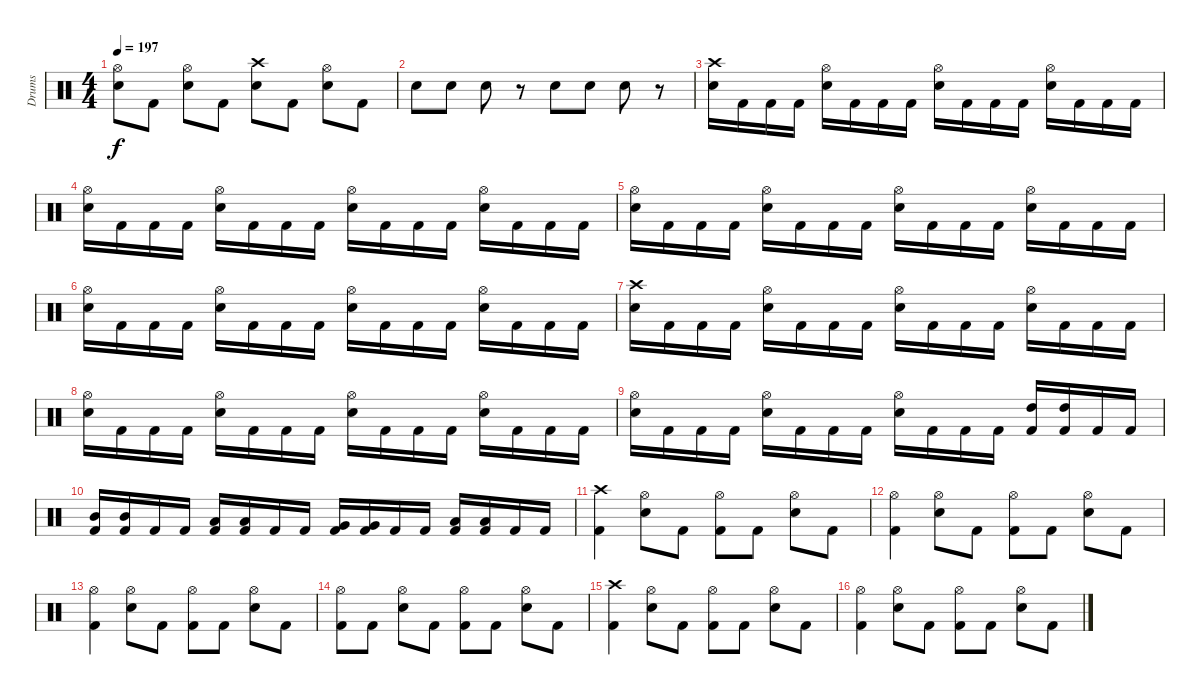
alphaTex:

\track ("Drums" "Drums") {instrument percussion}
\staff {score}
\articulation defaults
\ts (4 4)
\tempo 197
\clef neutral
\ks c
("Hi-Hat (open)" "Electric Snare (hit)").8{dy f} "Kick (hit) 2".8 ("Hi-Hat (open)" "Electric Snare (hit)").8 "Kick (hit) 2".8 ("Crash high (hit)" "Electric Snare (hit)").8 "Kick (hit) 2".8 ("Hi-Hat (open)" "Electric Snare (hit)").8 "Kick (hit) 2".8 |
"Electric Snare (hit)".8 "Electric Snare (hit)".8 "Electric Snare (hit)".8 r.8 "Electric Snare (hit)".8 "Electric Snare (hit)".8 "Electric Snare (hit)".8 r.8 |
("Crash high (hit)" "Electric Snare (hit)").16 "Kick (hit) 2".16 "Kick (hit) 2".16 "Kick (hit) 2".16 ("Hi-Hat (open)" "Electric Snare (hit)").16 "Kick (hit) 2".16 "Kick (hit) 2".16 "Kick (hit) 2".16 ("Hi-Hat (open)" "Electric Snare (hit)").16 "Kick (hit) 2".16 "Kick (hit) 2".16 "Kick (hit) 2".16 ("Hi-Hat (open)" "Electric Snare (hit)").16 "Kick (hit) 2".16 "Kick (hit) 2".16 "Kick (hit) 2".16 |
("Hi-Hat (open)" "Electric Snare (hit)").16 "Kick (hit) 2".16 "Kick (hit) 2".16 "Kick (hit) 2".16 ("Hi-Hat (open)" "Electric Snare (hit)").16 "Kick (hit) 2".16 "Kick (hit) 2".16 "Kick (hit) 2".16 ("Hi-Hat (open)" "Electric Snare (hit)").16 "Kick (hit) 2".16 "Kick (hit) 2".16 "Kick (hit) 2".16 ("Hi-Hat (open)" "Electric Snare (hit)").16 "Kick (hit) 2".16 "Kick (hit) 2".16 "Kick (hit) 2".16 |
("Hi-Hat (open)" "Electric Snare (hit)").16 "Kick (hit) 2".16 "Kick (hit) 2".16 "Kick (hit) 2".16 ("Hi-Hat (open)" "Electric Snare (hit)").16 "Kick (hit) 2".16 "Kick (hit) 2".16 "Kick (hit) 2".16 ("Hi-Hat (open)" "Electric Snare (hit)").16 "Kick (hit) 2".16 "Kick (hit) 2".16 "Kick (hit) 2".16 ("Hi-Hat (open)" "Electric Snare (hit)").16 "Kick (hit) 2".16 "Kick (hit) 2".16 "Kick (hit) 2".16 |
("Hi-Hat (open)" "Electric Snare (hit)").16 "Kick (hit) 2".16 "Kick (hit) 2".16 "Kick (hit) 2".16 ("Hi-Hat (open)" "Electric Snare (hit)").16 "Kick (hit) 2".16 "Kick (hit) 2".16 "Kick (hit) 2".16 ("Hi-Hat (open)" "Electric Snare (hit)").16 "Kick (hit) 2".16 "Kick (hit) 2".16 "Kick (hit) 2".16 ("Hi-Hat (open)" "Electric Snare (hit)").16 "Kick (hit) 2".16 "Kick (hit) 2".16 "Kick (hit) 2".16 |
("Crash high (hit)" "Electric Snare (hit)").16 "Kick (hit) 2".16 "Kick (hit) 2".16 "Kick (hit) 2".16 ("Hi-Hat (open)" "Electric Snare (hit)").16 "Kick (hit) 2".16 "Kick (hit) 2".16 "Kick (hit) 2".16 ("Hi-Hat (open)" "Electric Snare (hit)").16 "Kick (hit) 2".16 "Kick (hit) 2".16 "Kick (hit) 2".16 ("Hi-Hat (open)" "Electric Snare (hit)").16 "Kick (hit) 2".16 "Kick (hit) 2".16 "Kick (hit) 2".16 |
("Hi-Hat (open)" "Electric Snare (hit)").16 "Kick (hit) 2".16 "Kick (hit) 2".16 "Kick (hit) 2".16 ("Hi-Hat (open)" "Electric Snare (hit)").16 "Kick (hit) 2".16 "Kick (hit) 2".16 "Kick (hit) 2".16 ("Hi-Hat (open)" "Electric Snare (hit)").16 "Kick (hit) 2".16 "Kick (hit) 2".16 "Kick (hit) 2".16 ("Hi-Hat (open)" "Electric Snare (hit)").16 "Kick (hit) 2".16 "Kick (hit) 2".16 "Kick (hit) 2".16 |
("Hi-Hat (open)" "Electric Snare (hit)").16 "Kick (hit) 2".16 "Kick (hit) 2".16 "Kick (hit) 2".16 ("Hi-Hat (open)" "Electric Snare (hit)").16 "Kick (hit) 2".16 "Kick (hit) 2".16 "Kick (hit) 2".16 ("Hi-Hat (open)" "Electric Snare (hit)").16 "Kick (hit) 2".16 "Kick (hit) 2".16 "Kick (hit) 2".16 ("High Tom (hit)" "Kick (hit) 2").16 ("High Tom (hit)" "Kick (hit) 2").16 "Kick (hit) 2".16 "Kick (hit) 2".16 |
("Mid Tom (hit)" "Kick (hit) 2").16 ("Mid Tom (hit)" "Kick (hit) 2").16 "Kick (hit) 2".16 "Kick (hit) 2".16 ("Low Tom (hit)" "Kick (hit) 2").16 ("Low Tom (hit)" "Kick (hit) 2").16 "Kick (hit) 2".16 "Kick (hit) 2".16 ("Very Low Tom (hit)" "Kick (hit) 2").16 ("Very Low Tom (hit)" "Kick (hit) 2").16 "Kick (hit) 2".16 "Kick (hit) 2".16 ("Low Tom (hit)" "Kick (hit) 2").16 ("Low Tom (hit)" "Kick (hit) 2").16 "Kick (hit) 2".16 "Kick (hit) 2".16 |
("Crash high (hit)" "Kick (hit) 2").4 ("Hi-Hat (open)" "Electric Snare (hit)").8 "Kick (hit) 2".8 ("Hi-Hat (open)" "Kick (hit) 2").8 "Kick (hit) 2".8 ("Hi-Hat (open)" "Electric Snare (hit)").8 "Kick (hit) 2".8 |
("Hi-Hat (open)" "Kick (hit) 2").4 ("Hi-Hat (open)" "Electric Snare (hit)").8 "Kick (hit) 2".8 ("Hi-Hat (open)" "Kick (hit) 2").8 "Kick (hit) 2".8 ("Hi-Hat (open)" "Electric Snare (hit)").8 "Kick (hit) 2".8 |
("Hi-Hat (open)" "Kick (hit) 2").4 ("Hi-Hat (open)" "Electric Snare (hit)").8 "Kick (hit) 2".8 ("Hi-Hat (open)" "Kick (hit) 2").8 "Kick (hit) 2".8 ("Hi-Hat (open)" "Electric Snare (hit)").8 "Kick (hit) 2".8 |
("Hi-Hat (open)" "Kick (hit) 2").8 "Kick (hit) 2".8 ("Hi-Hat (open)" "Electric Snare (hit)").8 "Kick (hit) 2".8 ("Hi-Hat (open)" "Kick (hit) 2").8 "Kick (hit) 2".8 ("Hi-Hat (open)" "Electric Snare (hit)").8 "Kick (hit) 2".8 |
("Crash high (hit)" "Kick (hit) 2").4 ("Hi-Hat (open)" "Electric Snare (hit)").8 "Kick (hit) 2".8 ("Hi-Hat (open)" "Kick (hit) 2").8 "Kick (hit) 2".8 ("Hi-Hat (open)" "Electric Snare (hit)").8 "Kick (hit) 2".8 |
("Hi-Hat (open)" "Kick (hit) 2").4 ("Hi-Hat (open)" "Electric Snare (hit)").8 "Kick (hit) 2".8 ("Hi-Hat (open)" "Kick (hit) 2").8 "Kick (hit) 2".8 ("Hi-Hat (open)" "Electric Snare (hit)").8 "Kick (hit) 2".8
